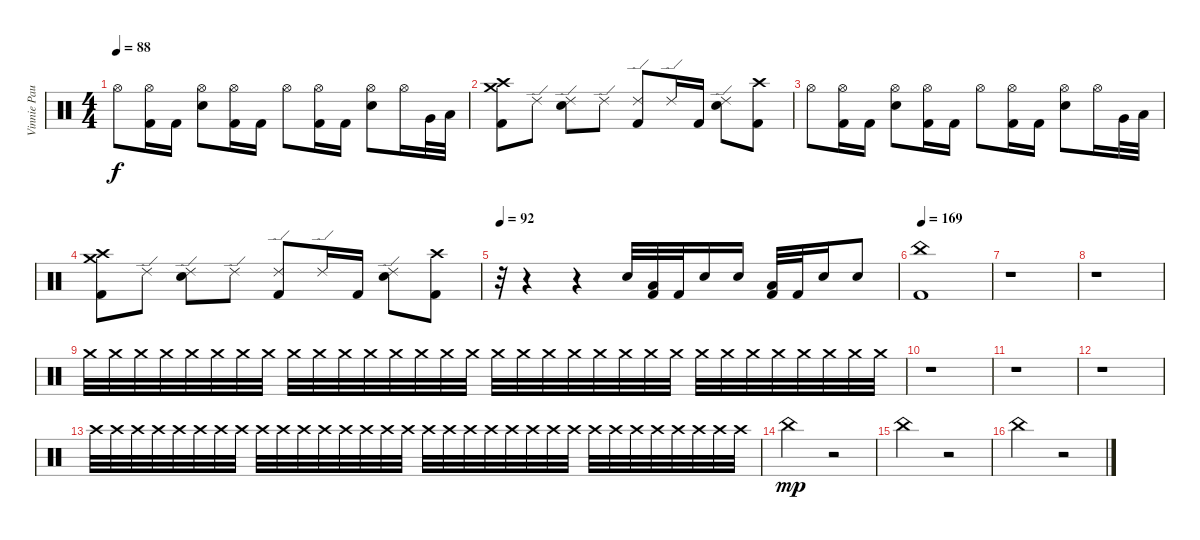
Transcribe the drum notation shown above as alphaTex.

\track ("Vinnie Paul (Drums)" "Vinnie Pau") {instrument percussion}
\staff {score}
\articulation defaults
\ts (4 4)
\tempo 88
\clef neutral
\ks c "Hi-Hat (open)".8{dy f}
("Hi-Hat (open)" "Kick (hit) 2").16 "Kick (hit) 2".16 ("Hi-Hat (open)" "Snare (hit) 2").8 ("Hi-Hat (open)" "Kick (hit) 2").16 "Kick (hit) 2".16 "Hi-Hat (open)".8 ("Hi-Hat (open)" "Kick (hit) 2").16 "Kick (hit) 2".16 ("Hi-Hat (open)" "Snare (hit) 2").8 "Hi-Hat (open)".16 "Very Low Tom (hit)".32 "Low Floor Tom (hit)".32 |
("Crash high (hit)" "Crash medium (hit)" "Kick (hit) 2").8 "Ride (edge) 2".8 ("Ride (edge) 2" "Snare (hit) 2").8 "Ride (edge) 2".8 ("Ride (edge) 2" "Kick (hit) 2").8 "Ride (edge) 2".16 "Kick (hit) 2".16 ("Ride (edge) 2" "Snare (hit) 2").8 ("Crash high (hit)" "Kick (hit) 2").8 |
"Hi-Hat (open)".8 ("Hi-Hat (open)" "Kick (hit) 2").16 "Kick (hit) 2".16 ("Hi-Hat (open)" "Snare (hit) 2").8 ("Hi-Hat (open)" "Kick (hit) 2").16 "Kick (hit) 2".16 "Hi-Hat (open)".8 ("Hi-Hat (open)" "Kick (hit) 2").16 "Kick (hit) 2".16 ("Hi-Hat (open)" "Snare (hit) 2").8 "Hi-Hat (open)".16 "Very Low Tom (hit)".32 "Low Floor Tom (hit)".32 |
("Crash high (hit)" "Crash medium (hit)" "Kick (hit) 2").8 "Ride (edge) 2".8 ("Ride (edge) 2" "Snare (hit) 2").8 "Ride (edge) 2".8 ("Ride (edge) 2" "Kick (hit) 2").8 "Ride (edge) 2".16 "Kick (hit) 2".16 ("Ride (edge) 2" "Snare (hit) 2").8 ("Crash high (hit)" "Kick (hit) 2").8 |
\tempo 92
r.32 r.4 r.4 "Snare (hit) 2".32 ("Low Floor Tom (hit)" "Kick (hit) 2").32 "Kick (hit) 2".32 "Snare (hit) 2".16 "Snare (hit) 2".16 ("Low Floor Tom (hit)" "Kick (hit) 2").32 "Kick (hit) 2".32 "Snare (hit) 2".16 "Snare (hit) 2".8 |
\tempo 169
("China (hit)" "Kick (hit) 2").1 |
r.1 |
r.1 |
"Crash medium (hit)".32{volume 0} "Crash medium (hit)".32{volume 14} "Crash medium (hit)".32 "Crash medium (hit)".32 "Crash medium (hit)".32 "Crash medium (hit)".32 "Crash medium (hit)".32 "Crash medium (hit)".32 "Crash medium (hit)".32 "Crash medium (hit)".32 "Crash medium (hit)".32 "Crash medium (hit)".32 "Crash medium (hit)".32 "Crash medium (hit)".32 "Crash medium (hit)".32 "Crash medium (hit)".32 "Crash medium (hit)".32 "Crash medium (hit)".32 "Crash medium (hit)".32 "Crash medium (hit)".32 "Crash medium (hit)".32 "Crash medium (hit)".32 "Crash medium (hit)".32 "Crash medium (hit)".32 "Crash medium (hit)".32 "Crash medium (hit)".32 "Crash medium (hit)".32 "Crash medium (hit)".32 "Crash medium (hit)".32 "Crash medium (hit)".32 "Crash medium (hit)".32 "Crash medium (hit)".32 |
r.1 |
r.1 |
r.1 |
"Crash high (hit)".32{volume 0} "Crash high (hit)".32{volume 14} "Crash high (hit)".32 "Crash high (hit)".32 "Crash high (hit)".32 "Crash high (hit)".32 "Crash high (hit)".32 "Crash high (hit)".32 "Crash high (hit)".32 "Crash high (hit)".32 "Crash high (hit)".32 "Crash high (hit)".32 "Crash high (hit)".32 "Crash high (hit)".32 "Crash high (hit)".32 "Crash high (hit)".32 "Crash high (hit)".32 "Crash high (hit)".32 "Crash high (hit)".32 "Crash high (hit)".32 "Crash high (hit)".32 "Crash high (hit)".32 "Crash high (hit)".32 "Crash high (hit)".32 "Crash high (hit)".32 "Crash high (hit)".32 "Crash high (hit)".32 "Crash high (hit)".32 "Crash high (hit)".32 "Crash high (hit)".32 "Crash high (hit)".32 "Crash high (hit)".32 |
"China (hit)".2{dy mp} r.2 |
"China (hit)".2 r.2 |
"China (hit)".2 r.2
